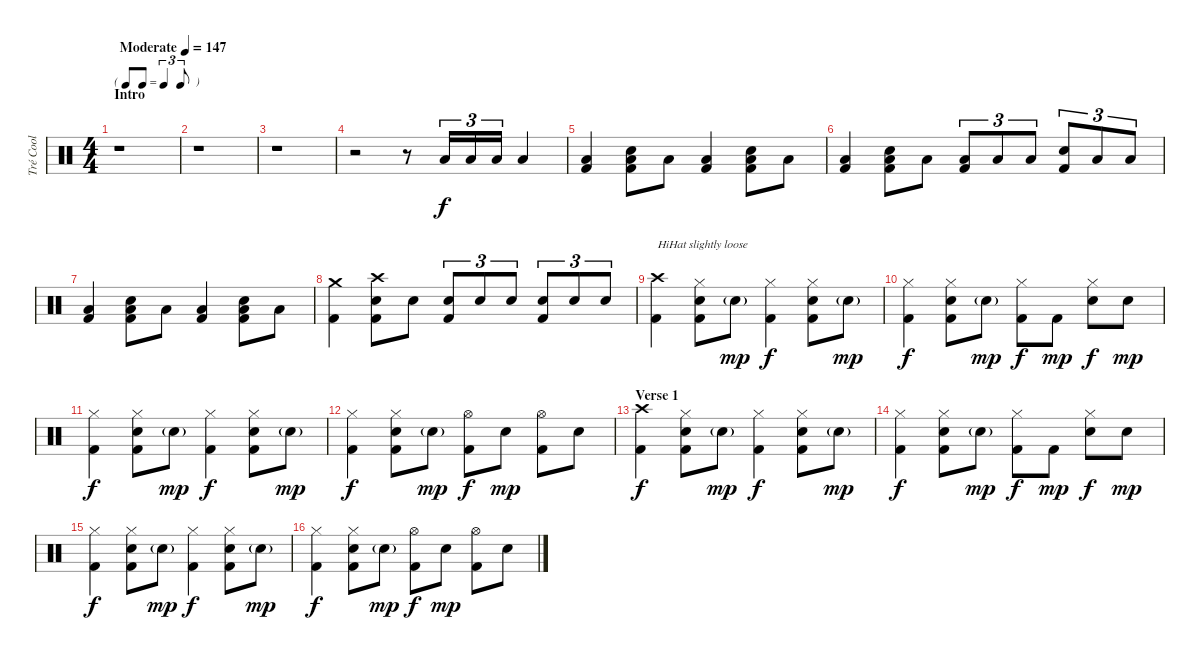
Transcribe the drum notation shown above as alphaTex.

\track ("Tré Cool" "Tré Cool") {instrument percussion}
\staff {score}
\articulation defaults
\ts (4 4)
\tf triplet8th
\section ("" "Intro")
\tempo (147 "Moderate")
\clef neutral
\ks c
r.1{dy f} |
r.1 |
r.1 |
r.2 r.8 "Low Tom (hit)".16{tu (3 2)} "Low Tom (hit)".16{tu (3 2)} "Low Tom (hit)".16{tu (3 2)} "Low Tom (hit)".4 |
("Low Tom (hit)" "Kick (hit) 2").4 ("Snare (hit) 2" "Low Tom (hit)" "Kick (hit) 2").8 "Low Tom (hit)".8 ("Low Tom (hit)" "Kick (hit) 2").4 ("Snare (hit) 2" "Low Tom (hit)" "Kick (hit) 2").8 "Low Tom (hit)".8 |
("Low Tom (hit)" "Kick (hit) 2").4 ("Snare (hit) 2" "Low Tom (hit)" "Kick (hit) 2").8 "Low Tom (hit)".8 ("Low Tom (hit)" "Kick (hit) 2").8{tu (3 2)} "Low Tom (hit)".8{tu (3 2)} "Low Tom (hit)".8{tu (3 2)} ("Snare (hit) 2" "Kick (hit) 2").8{tu (3 2)} "Low Tom (hit)".8{tu (3 2)} "Low Tom (hit)".8{tu (3 2)} |
("Low Tom (hit)" "Kick (hit) 2").4 ("Snare (hit) 2" "Low Tom (hit)" "Kick (hit) 2").8 "Low Tom (hit)".8 ("Low Tom (hit)" "Kick (hit) 2").4 ("Snare (hit) 2" "Low Tom (hit)" "Kick (hit) 2").8 "Low Tom (hit)".8 |
("Crash medium (hit)" "Kick (hit) 2").4 ("Crash high (hit)" "Snare (hit) 2" "Kick (hit) 2").8 "Snare (hit) 2".8 ("Snare (hit) 2" "Kick (hit) 2").8{tu (3 2)} "Snare (hit) 2".8{tu (3 2)} "Snare (hit) 2".8{tu (3 2)} ("Snare (hit) 2" "Kick (hit) 2").8{tu (3 2)} "Snare (hit) 2".8{tu (3 2)} "Snare (hit) 2".8{tu (3 2)} |
("Crash high (hit)" "Kick (hit) 2").4{txt "HiHat slightly loose"} ("Hi-Hat (closed)" "Snare (hit) 2" "Kick (hit) 2").8 "Snare (hit) 2"{g}.8{dy mp} ("Hi-Hat (closed)" "Kick (hit) 2").4{dy f} ("Hi-Hat (closed)" "Snare (hit) 2" "Kick (hit) 2").8 "Snare (hit) 2"{g}.8{dy mp} |
("Hi-Hat (closed)" "Kick (hit) 2").4{dy f} ("Hi-Hat (closed)" "Snare (hit) 2" "Kick (hit) 2").8 "Snare (hit) 2"{g}.8{dy mp} ("Hi-Hat (closed)" "Kick (hit) 2").8{dy f} "Kick (hit) 2".8{dy mp} ("Hi-Hat (closed)" "Snare (hit) 2").8{dy f} "Snare (hit) 2".8{dy mp} |
("Hi-Hat (closed)" "Kick (hit) 2").4{dy f} ("Hi-Hat (closed)" "Snare (hit) 2" "Kick (hit) 2").8 "Snare (hit) 2"{g}.8{dy mp} ("Hi-Hat (closed)" "Kick (hit) 2").4{dy f} ("Hi-Hat (closed)" "Snare (hit) 2" "Kick (hit) 2").8 "Snare (hit) 2"{g}.8{dy mp} |
("Hi-Hat (closed)" "Kick (hit) 2").4{dy f} ("Hi-Hat (closed)" "Snare (hit) 2" "Kick (hit) 2").8 "Snare (hit) 2"{g}.8{dy mp} ("Hi-Hat (open)" "Kick (hit) 2").8{dy f} "Snare (hit) 2".8{dy mp} ("Hi-Hat (open)" "Kick (hit) 2").8 "Snare (hit) 2".8 |
\section ("" "Verse 1")
("Crash high (hit)" "Kick (hit) 2").4{dy f} ("Hi-Hat (closed)" "Snare (hit) 2" "Kick (hit) 2").8 "Snare (hit) 2"{g}.8{dy mp} ("Hi-Hat (closed)" "Kick (hit) 2").4{dy f} ("Hi-Hat (closed)" "Snare (hit) 2" "Kick (hit) 2").8 "Snare (hit) 2"{g}.8{dy mp} |
("Hi-Hat (closed)" "Kick (hit) 2").4{dy f} ("Hi-Hat (closed)" "Snare (hit) 2" "Kick (hit) 2").8 "Snare (hit) 2"{g}.8{dy mp} ("Hi-Hat (closed)" "Kick (hit) 2").8{dy f} "Kick (hit) 2".8{dy mp} ("Hi-Hat (closed)" "Snare (hit) 2").8{dy f} "Snare (hit) 2".8{dy mp} |
("Hi-Hat (closed)" "Kick (hit) 2").4{dy f} ("Hi-Hat (closed)" "Snare (hit) 2" "Kick (hit) 2").8 "Snare (hit) 2"{g}.8{dy mp} ("Hi-Hat (closed)" "Kick (hit) 2").4{dy f} ("Hi-Hat (closed)" "Snare (hit) 2" "Kick (hit) 2").8 "Snare (hit) 2"{g}.8{dy mp} |
("Hi-Hat (closed)" "Kick (hit) 2").4{dy f} ("Hi-Hat (closed)" "Snare (hit) 2" "Kick (hit) 2").8 "Snare (hit) 2"{g}.8{dy mp} ("Hi-Hat (open)" "Kick (hit) 2").8{dy f} "Snare (hit) 2".8{dy mp} ("Hi-Hat (open)" "Kick (hit) 2").8 "Snare (hit) 2".8
